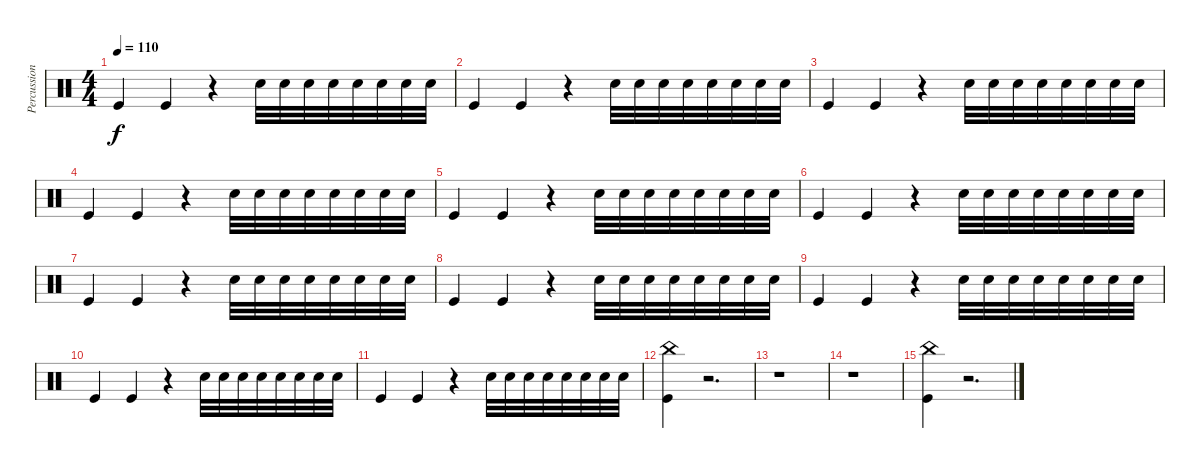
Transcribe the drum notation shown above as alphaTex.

\track ("Percussions" "Percussion") {instrument percussion}
\staff {score}
\articulation defaults
\ts (4 4)
\tempo 110
\clef neutral
\ks c "Kick (hit)".4{dy f} "Kick (hit)".4
r.4 "Snare (hit) 2".32 "Snare (hit) 2".32 "Snare (hit) 2".32 "Snare (hit) 2".32 "Snare (hit) 2".32 "Snare (hit) 2".32 "Snare (hit) 2".32 "Snare (hit) 2".32 |
"Kick (hit)".4 "Kick (hit)".4 r.4 "Snare (hit) 2".32 "Snare (hit) 2".32 "Snare (hit) 2".32 "Snare (hit) 2".32 "Snare (hit) 2".32 "Snare (hit) 2".32 "Snare (hit) 2".32 "Snare (hit) 2".32 |
"Kick (hit)".4 "Kick (hit)".4 r.4 "Snare (hit) 2".32 "Snare (hit) 2".32 "Snare (hit) 2".32 "Snare (hit) 2".32 "Snare (hit) 2".32 "Snare (hit) 2".32 "Snare (hit) 2".32 "Snare (hit) 2".32 |
"Kick (hit)".4 "Kick (hit)".4 r.4 "Snare (hit) 2".32 "Snare (hit) 2".32 "Snare (hit) 2".32 "Snare (hit) 2".32 "Snare (hit) 2".32 "Snare (hit) 2".32 "Snare (hit) 2".32 "Snare (hit) 2".32 |
"Kick (hit)".4 "Kick (hit)".4 r.4 "Snare (hit) 2".32 "Snare (hit) 2".32 "Snare (hit) 2".32 "Snare (hit) 2".32 "Snare (hit) 2".32 "Snare (hit) 2".32 "Snare (hit) 2".32 "Snare (hit) 2".32 |
"Kick (hit)".4 "Kick (hit)".4 r.4 "Snare (hit) 2".32 "Snare (hit) 2".32 "Snare (hit) 2".32 "Snare (hit) 2".32 "Snare (hit) 2".32 "Snare (hit) 2".32 "Snare (hit) 2".32 "Snare (hit) 2".32 |
"Kick (hit)".4 "Kick (hit)".4 r.4 "Snare (hit) 2".32 "Snare (hit) 2".32 "Snare (hit) 2".32 "Snare (hit) 2".32 "Snare (hit) 2".32 "Snare (hit) 2".32 "Snare (hit) 2".32 "Snare (hit) 2".32 |
"Kick (hit)".4 "Kick (hit)".4 r.4 "Snare (hit) 2".32 "Snare (hit) 2".32 "Snare (hit) 2".32 "Snare (hit) 2".32 "Snare (hit) 2".32 "Snare (hit) 2".32 "Snare (hit) 2".32 "Snare (hit) 2".32 |
"Kick (hit)".4 "Kick (hit)".4 r.4 "Snare (hit) 2".32 "Snare (hit) 2".32 "Snare (hit) 2".32 "Snare (hit) 2".32 "Snare (hit) 2".32 "Snare (hit) 2".32 "Snare (hit) 2".32 "Snare (hit) 2".32 |
"Kick (hit)".4 "Kick (hit)".4 r.4 "Snare (hit) 2".32 "Snare (hit) 2".32 "Snare (hit) 2".32 "Snare (hit) 2".32 "Snare (hit) 2".32 "Snare (hit) 2".32 "Snare (hit) 2".32 "Snare (hit) 2".32 |
"Kick (hit)".4 "Kick (hit)".4 r.4 "Snare (hit) 2".32 "Snare (hit) 2".32 "Snare (hit) 2".32 "Snare (hit) 2".32 "Snare (hit) 2".32 "Snare (hit) 2".32 "Snare (hit) 2".32 "Snare (hit) 2".32 |
("China (hit)" "Kick (hit)").4 r.2{d} |
r.1 |
r.1 |
("China (hit)" "Kick (hit)").4 r.2{d}
